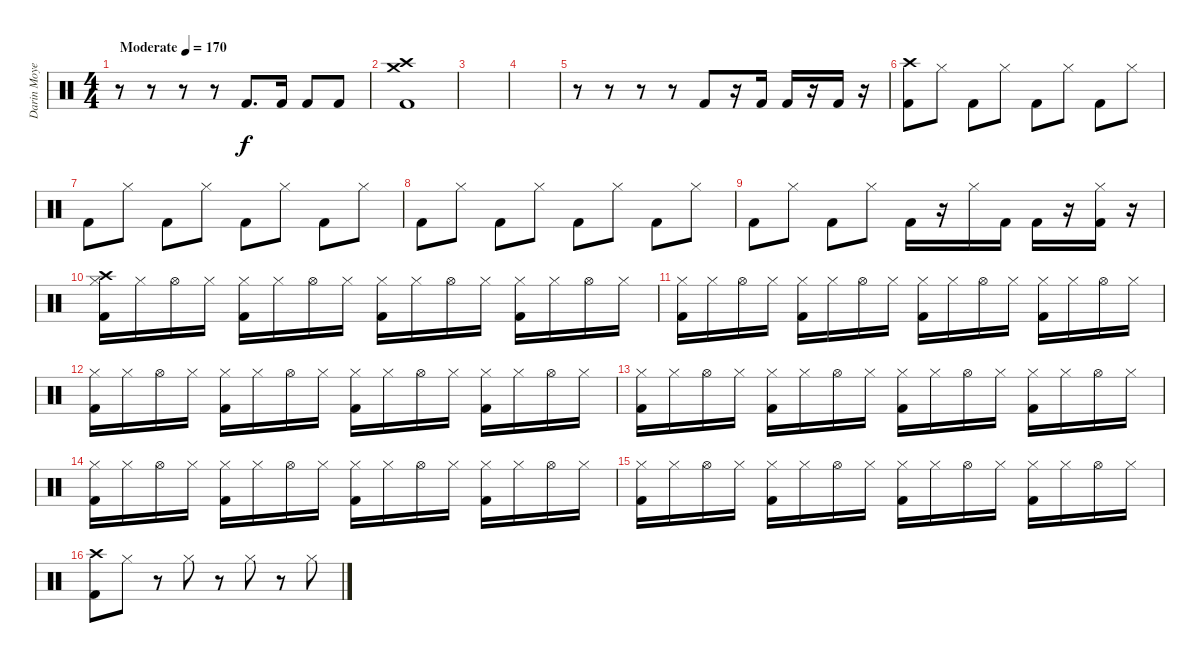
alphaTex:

\track ("Darin Moyen" "Darin Moye") {instrument percussion}
\staff {score}
\articulation defaults
\ts (4 4)
\tempo (170 "Moderate")
\clef neutral
\ks c
r.8{dy f} r.8 r.8 r.8 "Kick (hit) 2".8{d} "Kick (hit) 2".16 "Kick (hit) 2".8 "Kick (hit) 2".8 |
("Crash medium (hit)" "Crash high (hit)" "Kick (hit) 2").1 |
|
|
r.8 r.8 r.8 r.8 "Kick (hit) 2".8 r.16 "Kick (hit) 2".16 "Kick (hit) 2".16 r.16 "Kick (hit) 2".16 r.16 |
("Crash high (hit)" "Kick (hit) 2").8 "Hi-Hat (closed)".8 "Kick (hit) 2".8 "Hi-Hat (closed)".8 "Kick (hit) 2".8 "Hi-Hat (closed)".8 "Kick (hit) 2".8 "Hi-Hat (closed)".8 |
"Kick (hit) 2".8 "Hi-Hat (closed)".8 "Kick (hit) 2".8 "Hi-Hat (closed)".8 "Kick (hit) 2".8 "Hi-Hat (closed)".8 "Kick (hit) 2".8 "Hi-Hat (closed)".8 |
"Kick (hit) 2".8 "Hi-Hat (closed)".8 "Kick (hit) 2".8 "Hi-Hat (closed)".8 "Kick (hit) 2".8 "Hi-Hat (closed)".8 "Kick (hit) 2".8 "Hi-Hat (closed)".8 |
"Kick (hit) 2".8 "Hi-Hat (closed)".8 "Kick (hit) 2".8 "Hi-Hat (closed)".8 "Kick (hit) 2".16 r.16 "Hi-Hat (closed)".16 "Kick (hit) 2".16 "Kick (hit) 2".16 r.16 ("Hi-Hat (closed)" "Kick (hit) 2").16 r.16 |
("Crash high (hit)" "Hi-Hat (closed)" "Kick (hit) 2").16 "Hi-Hat (closed)".16 "Hi-Hat (open)".16 "Hi-Hat (closed)".16 ("Hi-Hat (closed)" "Kick (hit) 2").16 "Hi-Hat (closed)".16 "Hi-Hat (open)".16 "Hi-Hat (closed)".16 ("Hi-Hat (closed)" "Kick (hit) 2").16 "Hi-Hat (closed)".16 "Hi-Hat (open)".16 "Hi-Hat (closed)".16 ("Hi-Hat (closed)" "Kick (hit) 2").16 "Hi-Hat (closed)".16 "Hi-Hat (open)".16 "Hi-Hat (closed)".16 |
("Hi-Hat (closed)" "Kick (hit) 2").16 "Hi-Hat (closed)".16 "Hi-Hat (open)".16 "Hi-Hat (closed)".16 ("Hi-Hat (closed)" "Kick (hit) 2").16 "Hi-Hat (closed)".16 "Hi-Hat (open)".16 "Hi-Hat (closed)".16 ("Hi-Hat (closed)" "Kick (hit) 2").16 "Hi-Hat (closed)".16 "Hi-Hat (open)".16 "Hi-Hat (closed)".16 ("Hi-Hat (closed)" "Kick (hit) 2").16 "Hi-Hat (closed)".16 "Hi-Hat (open)".16 "Hi-Hat (closed)".16 |
("Hi-Hat (closed)" "Kick (hit) 2").16 "Hi-Hat (closed)".16 "Hi-Hat (open)".16 "Hi-Hat (closed)".16 ("Hi-Hat (closed)" "Kick (hit) 2").16 "Hi-Hat (closed)".16 "Hi-Hat (open)".16 "Hi-Hat (closed)".16 ("Hi-Hat (closed)" "Kick (hit) 2").16 "Hi-Hat (closed)".16 "Hi-Hat (open)".16 "Hi-Hat (closed)".16 ("Hi-Hat (closed)" "Kick (hit) 2").16 "Hi-Hat (closed)".16 "Hi-Hat (open)".16 "Hi-Hat (closed)".16 |
("Hi-Hat (closed)" "Kick (hit) 2").16 "Hi-Hat (closed)".16 "Hi-Hat (open)".16 "Hi-Hat (closed)".16 ("Hi-Hat (closed)" "Kick (hit) 2").16 "Hi-Hat (closed)".16 "Hi-Hat (open)".16 "Hi-Hat (closed)".16 ("Hi-Hat (closed)" "Kick (hit) 2").16 "Hi-Hat (closed)".16 "Hi-Hat (open)".16 "Hi-Hat (closed)".16 ("Hi-Hat (closed)" "Kick (hit) 2").16 "Hi-Hat (closed)".16 "Hi-Hat (open)".16 "Hi-Hat (closed)".16 |
("Hi-Hat (closed)" "Kick (hit) 2").16 "Hi-Hat (closed)".16 "Hi-Hat (open)".16 "Hi-Hat (closed)".16 ("Hi-Hat (closed)" "Kick (hit) 2").16 "Hi-Hat (closed)".16 "Hi-Hat (open)".16 "Hi-Hat (closed)".16 ("Hi-Hat (closed)" "Kick (hit) 2").16 "Hi-Hat (closed)".16 "Hi-Hat (open)".16 "Hi-Hat (closed)".16 ("Hi-Hat (closed)" "Kick (hit) 2").16 "Hi-Hat (closed)".16 "Hi-Hat (open)".16 "Hi-Hat (closed)".16 |
("Hi-Hat (closed)" "Kick (hit) 2").16 "Hi-Hat (closed)".16 "Hi-Hat (open)".16 "Hi-Hat (closed)".16 ("Hi-Hat (closed)" "Kick (hit) 2").16 "Hi-Hat (closed)".16 "Hi-Hat (open)".16 "Hi-Hat (closed)".16 ("Hi-Hat (closed)" "Kick (hit) 2").16 "Hi-Hat (closed)".16 "Hi-Hat (open)".16 "Hi-Hat (closed)".16 ("Hi-Hat (closed)" "Kick (hit) 2").16 "Hi-Hat (closed)".16 "Hi-Hat (open)".16 "Hi-Hat (closed)".16 |
("Crash high (hit)" "Kick (hit) 2").8 "Hi-Hat (closed)".8 r.8 "Hi-Hat (closed)".8 r.8 "Hi-Hat (closed)".8 r.8 "Hi-Hat (closed)".8
